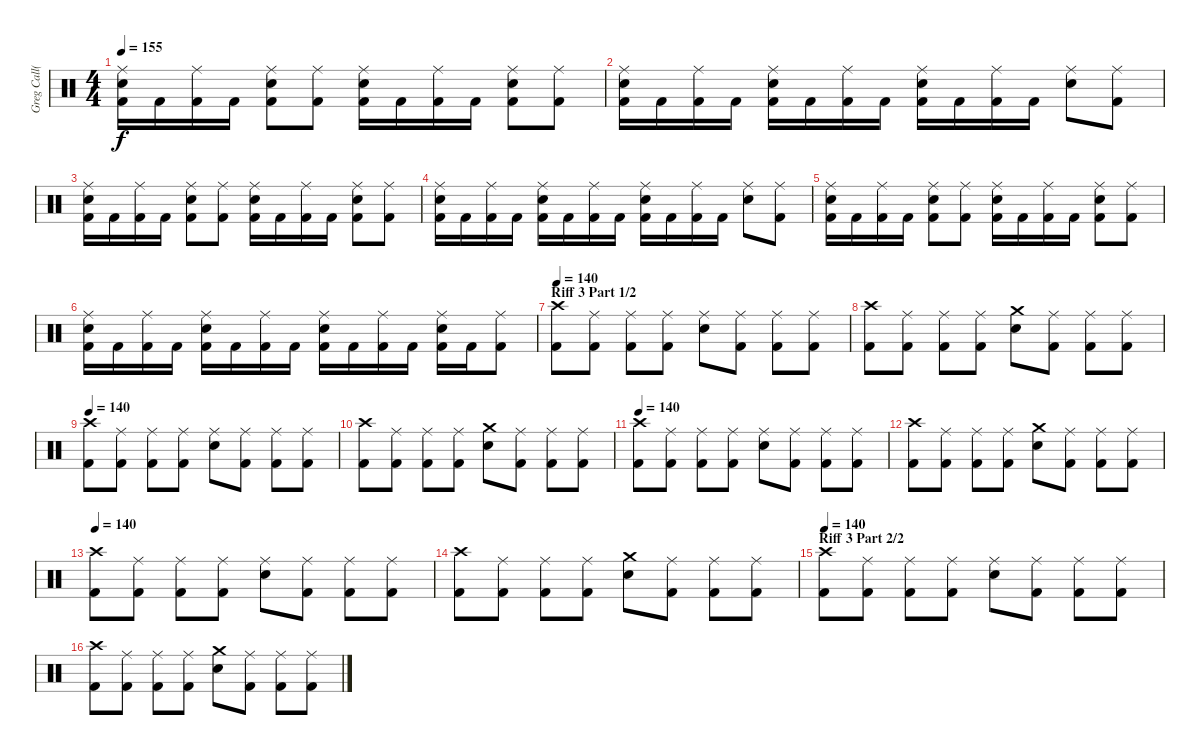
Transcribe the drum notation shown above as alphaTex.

\track ("Greg Call(Drums)" "Greg Call(") {instrument percussion}
\staff {score}
\articulation defaults
\ts (4 4)
\tempo 155
\clef neutral
\ks c
("Kick (hit) 2" "Ride (middle)" "Snare (hit) 2").16{dy f} "Kick (hit) 2".16 ("Ride (middle)" "Kick (hit) 2").16 "Kick (hit) 2".16 ("Kick (hit) 2" "Ride (middle)" "Snare (hit) 2").8 ("Ride (middle)" "Kick (hit) 2").8 ("Kick (hit) 2" "Ride (middle)" "Snare (hit) 2").16 "Kick (hit) 2".16 ("Ride (middle)" "Kick (hit) 2").16 "Kick (hit) 2".16 ("Kick (hit) 2" "Ride (middle)" "Snare (hit) 2").8 ("Ride (middle)" "Kick (hit) 2").8 |
("Kick (hit) 2" "Ride (middle)" "Snare (hit) 2").16 "Kick (hit) 2".16 ("Ride (middle)" "Kick (hit) 2").16 "Kick (hit) 2".16 ("Kick (hit) 2" "Ride (middle)" "Snare (hit) 2").16 "Kick (hit) 2".16 ("Ride (middle)" "Kick (hit) 2").16 "Kick (hit) 2".16 ("Kick (hit) 2" "Ride (middle)" "Snare (hit) 2").16 "Kick (hit) 2".16 ("Ride (middle)" "Kick (hit) 2").16 "Kick (hit) 2".16 ("Ride (middle)" "Snare (hit) 2").8 ("Ride (middle)" "Kick (hit) 2").8 |
("Kick (hit) 2" "Ride (middle)" "Snare (hit) 2").16 "Kick (hit) 2".16 ("Ride (middle)" "Kick (hit) 2").16 "Kick (hit) 2".16 ("Kick (hit) 2" "Ride (middle)" "Snare (hit) 2").8 ("Ride (middle)" "Kick (hit) 2").8 ("Kick (hit) 2" "Ride (middle)" "Snare (hit) 2").16 "Kick (hit) 2".16 ("Ride (middle)" "Kick (hit) 2").16 "Kick (hit) 2".16 ("Kick (hit) 2" "Ride (middle)" "Snare (hit) 2").8 ("Ride (middle)" "Kick (hit) 2").8 |
("Kick (hit) 2" "Ride (middle)" "Snare (hit) 2").16 "Kick (hit) 2".16 ("Ride (middle)" "Kick (hit) 2").16 "Kick (hit) 2".16 ("Kick (hit) 2" "Ride (middle)" "Snare (hit) 2").16 "Kick (hit) 2".16 ("Ride (middle)" "Kick (hit) 2").16 "Kick (hit) 2".16 ("Kick (hit) 2" "Ride (middle)" "Snare (hit) 2").16 "Kick (hit) 2".16 ("Ride (middle)" "Kick (hit) 2").16 "Kick (hit) 2".16 ("Ride (middle)" "Snare (hit) 2").8 ("Ride (middle)" "Kick (hit) 2").8 |
("Kick (hit) 2" "Ride (middle)" "Snare (hit) 2").16 "Kick (hit) 2".16 ("Ride (middle)" "Kick (hit) 2").16 "Kick (hit) 2".16 ("Kick (hit) 2" "Ride (middle)" "Snare (hit) 2").8 ("Ride (middle)" "Kick (hit) 2").8 ("Kick (hit) 2" "Ride (middle)" "Snare (hit) 2").16 "Kick (hit) 2".16 ("Ride (middle)" "Kick (hit) 2").16 "Kick (hit) 2".16 ("Kick (hit) 2" "Ride (middle)" "Snare (hit) 2").8 ("Ride (middle)" "Kick (hit) 2").8 |
("Kick (hit) 2" "Ride (middle)" "Snare (hit) 2").16 "Kick (hit) 2".16 ("Ride (middle)" "Kick (hit) 2").16 "Kick (hit) 2".16 ("Kick (hit) 2" "Ride (middle)" "Snare (hit) 2").16 "Kick (hit) 2".16 ("Ride (middle)" "Kick (hit) 2").16 "Kick (hit) 2".16 ("Kick (hit) 2" "Ride (middle)" "Snare (hit) 2").16 "Kick (hit) 2".16 ("Ride (middle)" "Kick (hit) 2").16 "Kick (hit) 2".16 ("Ride (middle)" "Snare (hit) 2" "Kick (hit) 2").16 "Kick (hit) 2".16 ("Ride (middle)" "Kick (hit) 2").8 |
\section ("" "Riff 3 Part 1/2")
\tempo 140
("Crash high (hit)" "Kick (hit) 2").8 ("Ride (middle)" "Kick (hit) 2").8 ("Ride (middle)" "Kick (hit) 2").8 ("Ride (middle)" "Kick (hit) 2").8 ("Ride (middle)" "Snare (hit) 2").8 ("Ride (middle)" "Kick (hit) 2").8 ("Ride (middle)" "Kick (hit) 2").8 ("Ride (middle)" "Kick (hit) 2").8 |
("Crash high (hit)" "Kick (hit) 2").8 ("Ride (middle)" "Kick (hit) 2").8 ("Ride (middle)" "Kick (hit) 2").8 ("Ride (middle)" "Kick (hit) 2").8 ("Crash medium (hit)" "Snare (hit) 2").8 ("Ride (middle)" "Kick (hit) 2").8 ("Ride (middle)" "Kick (hit) 2").8 ("Ride (middle)" "Kick (hit) 2").8 |
\tempo 140
("Crash high (hit)" "Kick (hit) 2").8 ("Ride (middle)" "Kick (hit) 2").8 ("Ride (middle)" "Kick (hit) 2").8 ("Ride (middle)" "Kick (hit) 2").8 ("Ride (middle)" "Snare (hit) 2").8 ("Ride (middle)" "Kick (hit) 2").8 ("Ride (middle)" "Kick (hit) 2").8 ("Ride (middle)" "Kick (hit) 2").8 |
("Crash high (hit)" "Kick (hit) 2").8 ("Ride (middle)" "Kick (hit) 2").8 ("Ride (middle)" "Kick (hit) 2").8 ("Ride (middle)" "Kick (hit) 2").8 ("Crash medium (hit)" "Snare (hit) 2").8 ("Ride (middle)" "Kick (hit) 2").8 ("Ride (middle)" "Kick (hit) 2").8 ("Ride (middle)" "Kick (hit) 2").8 |
\tempo 140
("Crash high (hit)" "Kick (hit) 2").8 ("Ride (middle)" "Kick (hit) 2").8 ("Ride (middle)" "Kick (hit) 2").8 ("Ride (middle)" "Kick (hit) 2").8 ("Ride (middle)" "Snare (hit) 2").8 ("Ride (middle)" "Kick (hit) 2").8 ("Ride (middle)" "Kick (hit) 2").8 ("Ride (middle)" "Kick (hit) 2").8 |
("Crash high (hit)" "Kick (hit) 2").8 ("Ride (middle)" "Kick (hit) 2").8 ("Ride (middle)" "Kick (hit) 2").8 ("Ride (middle)" "Kick (hit) 2").8 ("Crash medium (hit)" "Snare (hit) 2").8 ("Ride (middle)" "Kick (hit) 2").8 ("Ride (middle)" "Kick (hit) 2").8 ("Ride (middle)" "Kick (hit) 2").8 |
\tempo 140
("Crash high (hit)" "Kick (hit) 2").8 ("Ride (middle)" "Kick (hit) 2").8 ("Ride (middle)" "Kick (hit) 2").8 ("Ride (middle)" "Kick (hit) 2").8 ("Ride (middle)" "Snare (hit) 2").8 ("Ride (middle)" "Kick (hit) 2").8 ("Ride (middle)" "Kick (hit) 2").8 ("Ride (middle)" "Kick (hit) 2").8 |
("Crash high (hit)" "Kick (hit) 2").8 ("Ride (middle)" "Kick (hit) 2").8 ("Ride (middle)" "Kick (hit) 2").8 ("Ride (middle)" "Kick (hit) 2").8 ("Crash medium (hit)" "Snare (hit) 2").8 ("Ride (middle)" "Kick (hit) 2").8 ("Ride (middle)" "Kick (hit) 2").8 ("Ride (middle)" "Kick (hit) 2").8 |
\section ("" "Riff 3 Part 2/2")
\tempo 140
("Crash high (hit)" "Kick (hit) 2").8 ("Ride (middle)" "Kick (hit) 2").8 ("Ride (middle)" "Kick (hit) 2").8 ("Ride (middle)" "Kick (hit) 2").8 ("Ride (middle)" "Snare (hit) 2").8 ("Ride (middle)" "Kick (hit) 2").8 ("Ride (middle)" "Kick (hit) 2").8 ("Ride (middle)" "Kick (hit) 2").8 |
("Crash high (hit)" "Kick (hit) 2").8 ("Ride (middle)" "Kick (hit) 2").8 ("Ride (middle)" "Kick (hit) 2").8 ("Ride (middle)" "Kick (hit) 2").8 ("Crash medium (hit)" "Snare (hit) 2").8 ("Ride (middle)" "Kick (hit) 2").8 ("Ride (middle)" "Kick (hit) 2").8 ("Ride (middle)" "Kick (hit) 2").8
